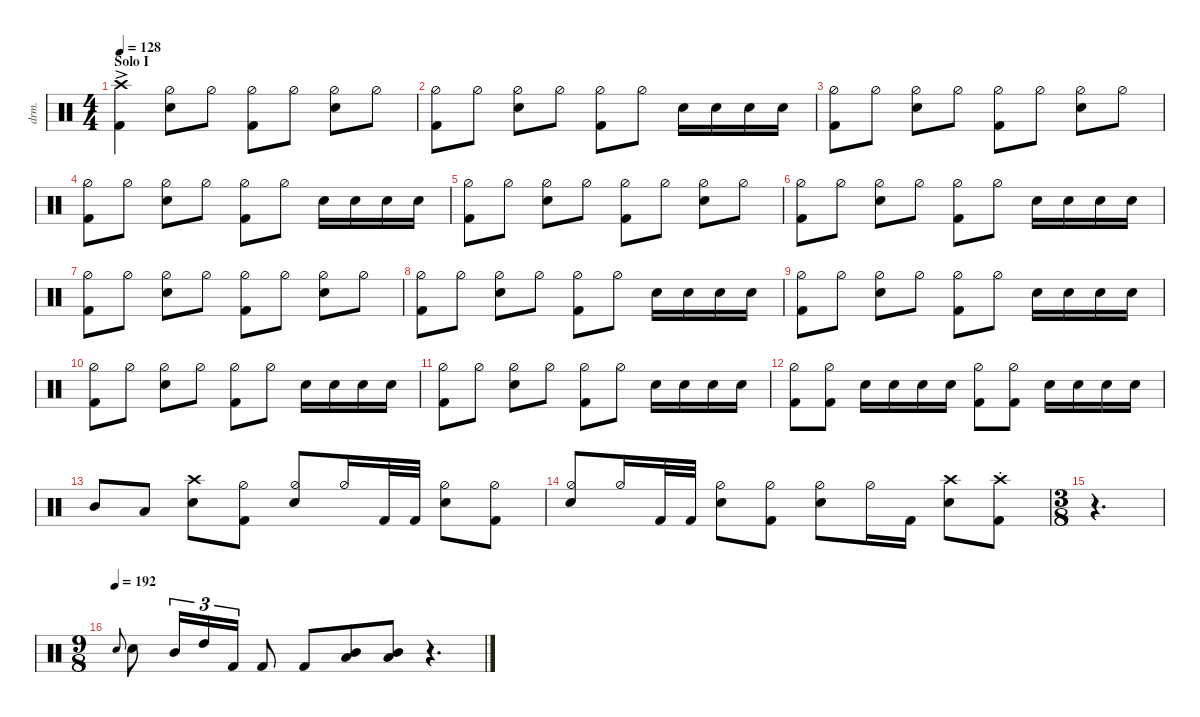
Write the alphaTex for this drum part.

\defaultSystemsLayout 4
\hideDynamics
\bracketExtendMode nobrackets
\otherSystemsTrackNameOrientation horizontal
\track ("Drumkit" "drm.") {defaultSystemsLayout 4 multiBarRest instrument percussion}
\staff
\articulation defaults
\ts (4 4)
\beaming (8 2 2 2 2)
\section ("" "Solo I")
\tempo 128
\clef neutral
\ks c
("Kick (hit) 2" "Crash high (hit)"{ac}).4{dy f beam Down} ("Hi-Hat (half)" "Snare (hit) 2").8{beam Down} "Hi-Hat (half)".8{beam Down} ("Kick (hit) 2" "Hi-Hat (half)").8{beam Down} "Hi-Hat (half)".8{beam Down} ("Hi-Hat (half)" "Snare (hit) 2").8{beam Down} "Hi-Hat (half)".8{beam Down} |
("Kick (hit) 2" "Hi-Hat (half)").8{beam Down} "Hi-Hat (half)".8{beam Down} ("Snare (hit) 2" "Hi-Hat (half)").8{beam Down} "Hi-Hat (half)".8{beam Down} ("Kick (hit) 2" "Hi-Hat (half)").8{beam Down} "Hi-Hat (half)".8{beam Down} "Snare (hit) 2".16{beam Down} "Snare (hit) 2".16{beam Down} "Snare (hit) 2".16{beam Down} "Snare (hit) 2".16{beam Down} |
("Kick (hit) 2" "Hi-Hat (half)").8{beam Down} "Hi-Hat (half)".8{beam Down} ("Hi-Hat (half)" "Snare (hit) 2").8{beam Down} "Hi-Hat (half)".8{beam Down} ("Kick (hit) 2" "Hi-Hat (half)").8{beam Down} "Hi-Hat (half)".8{beam Down} ("Hi-Hat (half)" "Snare (hit) 2").8{beam Down} "Hi-Hat (half)".8{beam Down} |
("Kick (hit) 2" "Hi-Hat (half)").8{beam Down} "Hi-Hat (half)".8{beam Down} ("Snare (hit) 2" "Hi-Hat (half)").8{beam Down} "Hi-Hat (half)".8{beam Down} ("Kick (hit) 2" "Hi-Hat (half)").8{beam Down} "Hi-Hat (half)".8{beam Down} "Snare (hit) 2".16{beam Down} "Snare (hit) 2".16{beam Down} "Snare (hit) 2".16{beam Down} "Snare (hit) 2".16{beam Down} |
("Kick (hit) 2" "Hi-Hat (half)").8{beam Down} "Hi-Hat (half)".8{beam Down} ("Hi-Hat (half)" "Snare (hit) 2").8{beam Down} "Hi-Hat (half)".8{beam Down} ("Kick (hit) 2" "Hi-Hat (half)").8{beam Down} "Hi-Hat (half)".8{beam Down} ("Hi-Hat (half)" "Snare (hit) 2").8{beam Down} "Hi-Hat (half)".8{beam Down} |
("Kick (hit) 2" "Hi-Hat (half)").8{beam Down} "Hi-Hat (half)".8{beam Down} ("Snare (hit) 2" "Hi-Hat (half)").8{beam Down} "Hi-Hat (half)".8{beam Down} ("Kick (hit) 2" "Hi-Hat (half)").8{beam Down} "Hi-Hat (half)".8{beam Down} "Snare (hit) 2".16{beam Down} "Snare (hit) 2".16{beam Down} "Snare (hit) 2".16{beam Down} "Snare (hit) 2".16{beam Down} |
("Kick (hit) 2" "Hi-Hat (half)").8{beam Down} "Hi-Hat (half)".8{beam Down} ("Hi-Hat (half)" "Snare (hit) 2").8{beam Down} "Hi-Hat (half)".8{beam Down} ("Kick (hit) 2" "Hi-Hat (half)").8{beam Down} "Hi-Hat (half)".8{beam Down} ("Hi-Hat (half)" "Snare (hit) 2").8{beam Down} "Hi-Hat (half)".8{beam Down} |
("Kick (hit) 2" "Hi-Hat (half)").8{beam Down} "Hi-Hat (half)".8{beam Down} ("Snare (hit) 2" "Hi-Hat (half)").8{beam Down} "Hi-Hat (half)".8{beam Down} ("Kick (hit) 2" "Hi-Hat (half)").8{beam Down} "Hi-Hat (half)".8{beam Down} "Snare (hit) 2".16{beam Down} "Snare (hit) 2".16{beam Down} "Snare (hit) 2".16{beam Down} "Snare (hit) 2".16{beam Down} |
("Kick (hit) 2" "Hi-Hat (half)").8{beam Down} "Hi-Hat (half)".8{beam Down} ("Snare (hit) 2" "Hi-Hat (half)").8{beam Down} "Hi-Hat (half)".8{beam Down} ("Kick (hit) 2" "Hi-Hat (half)").8{beam Down} "Hi-Hat (half)".8{beam Down} "Snare (hit) 2".16{beam Down} "Snare (hit) 2".16{beam Down} "Snare (hit) 2".16{beam Down} "Snare (hit) 2".16{beam Down} |
("Kick (hit) 2" "Hi-Hat (half)").8{beam Down} "Hi-Hat (half)".8{beam Down} ("Snare (hit) 2" "Hi-Hat (half)").8{beam Down} "Hi-Hat (half)".8{beam Down} ("Kick (hit) 2" "Hi-Hat (half)").8{beam Down} "Hi-Hat (half)".8{beam Down} "Snare (hit) 2".16{beam Down} "Snare (hit) 2".16{beam Down} "Snare (hit) 2".16{beam Down} "Snare (hit) 2".16{beam Down} |
("Kick (hit) 2" "Hi-Hat (half)").8{beam Down} "Hi-Hat (half)".8{beam Down} ("Snare (hit) 2" "Hi-Hat (half)").8{beam Down} "Hi-Hat (half)".8{beam Down} ("Kick (hit) 2" "Hi-Hat (half)").8{beam Down} "Hi-Hat (half)".8{beam Down} "Snare (hit) 2".16{beam Down} "Snare (hit) 2".16{beam Down} "Snare (hit) 2".16{beam Down} "Snare (hit) 2".16{beam Down} |
("Kick (hit) 2" "Hi-Hat (half)").8{beam Down} ("Hi-Hat (half)" "Kick (hit) 2").8{beam Down} "Snare (hit) 2".16{beam Down} "Snare (hit) 2".16{beam Down} "Snare (hit) 2".16{beam Down} "Snare (hit) 2".16{beam Down} ("Kick (hit) 2" "Hi-Hat (half)").8{beam Down} ("Hi-Hat (half)" "Kick (hit) 2").8{beam Down} "Snare (hit) 2".16{beam Down} "Snare (hit) 2".16{beam Down} "Snare (hit) 2".16{beam Down} "Snare (hit) 2".16{beam Down} |
"Mid Tom (hit)".8{dy fff beam Up} "Low Tom (hit)".8{beam Up} ("Snare (hit) 2" "Crash high (hit)").8{dy f beam Down} ("Hi-Hat (half)" "Kick (hit) 2").8{beam Down} ("Snare (hit) 2" "Hi-Hat (half)").8{beam Up} "Hi-Hat (half)".16{beam Up} "Kick (hit) 2".32{beam Up} "Kick (hit) 2".32{beam Up} ("Snare (hit) 2" "Hi-Hat (half)").8{beam Down} ("Hi-Hat (half)" "Kick (hit) 2").8{beam Down} |
("Snare (hit) 2" "Hi-Hat (half)").8{beam Up} "Hi-Hat (half)".16{beam Up} "Kick (hit) 2".32{beam Up} "Kick (hit) 2".32{beam Up} ("Snare (hit) 2" "Hi-Hat (half)").8{beam Down} ("Hi-Hat (half)" "Kick (hit) 2").8{beam Down} ("Snare (hit) 2" "Hi-Hat (half)").8{beam Down} "Hi-Hat (half)".16{beam Down} "Kick (hit) 2".16{beam Down} ("Snare (hit) 2" "Crash high (hit)").8{beam Down} ("Crash high (hit)"{st} "Kick (hit) 2").8{beam Down} |
\ts (3 8)
\beaming (8 3)
r.4{d beam Down} |
\ts (9 8)
\beaming (8 3 3 3)
\tempo (192)
"Snare (hit) 2".8{gr onbeat beam Up} "Snare (hit) 2".8{beam Down} "Mid Tom (hit)".16{tu (3 2) beam Up} "High Tom (hit)".16{tu (3 2) beam Up} "Kick (hit) 2".16{tu (3 2) beam Up} "Kick (hit) 2".8{beam Up} "Kick (hit) 2".8{beam Up} ("Mid Tom (hit)" "Low Tom (hit)").8{dy fff beam Up} ("Mid Tom (hit)" "Low Tom (hit)").8{beam Up} r.4{d beam Up}
